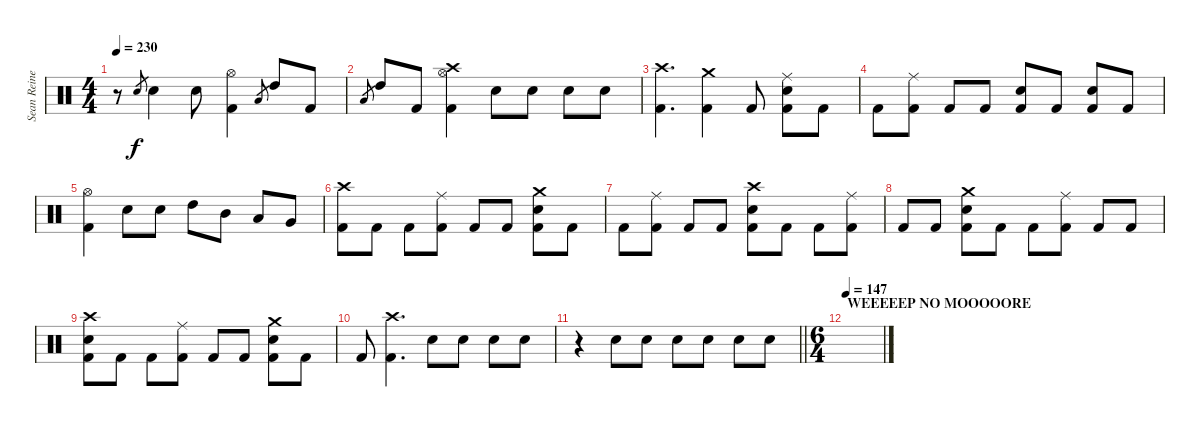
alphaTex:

\track ("Sean Reinert" "Sean Reine") {instrument percussion}
\staff {score}
\articulation defaults
\ts (4 4)
\tempo 230
\clef neutral
\ks c
r.8{dy f} "Snare (hit) 2".8{gr} "Snare (hit) 2".4 "Snare (hit) 2".8 ("Hi-Hat (open)" "Kick (hit) 2").4 "Low Floor Tom (hit)".8{gr} "High Tom (hit)".8 "Kick (hit) 2".8 |
"Low Floor Tom (hit)".8{gr} "High Tom (hit)".8 "Kick (hit) 2".8 ("Hi-Hat (open)" "Crash high (hit)" "Kick (hit) 2").4 "Snare (hit) 2".8 "Snare (hit) 2".8 "Snare (hit) 2".8 "Snare (hit) 2".8 |
("Crash high (hit)" "Kick (hit) 2").4{d} ("Crash medium (hit)" "Kick (hit) 2").4 "Kick (hit) 2".8 ("Ride (middle)" "Snare (hit) 2" "Kick (hit) 2").8 "Kick (hit) 2".8 |
"Kick (hit) 2".8 ("Ride (middle)" "Kick (hit) 2").8 "Kick (hit) 2".8 "Kick (hit) 2".8 ("Snare (hit) 2" "Kick (hit) 2").8 "Kick (hit) 2".8 ("Snare (hit) 2" "Kick (hit) 2").8 "Kick (hit) 2".8 |
("Hi-Hat (open)" "Kick (hit) 2").4 "Snare (hit) 2".8 "Snare (hit) 2".8 "High Tom (hit)".8 "Mid Tom (hit)".8 "Low Tom (hit)".8 "Very Low Tom (hit)".8 |
("Crash high (hit)" "Kick (hit) 2").8 "Kick (hit) 2".8 "Kick (hit) 2".8 ("Ride (middle)" "Kick (hit) 2").8 "Kick (hit) 2".8 "Kick (hit) 2".8 ("Crash medium (hit)" "Snare (hit) 2" "Kick (hit) 2").8 "Kick (hit) 2".8 |
"Kick (hit) 2".8 ("Ride (middle)" "Kick (hit) 2").8 "Kick (hit) 2".8 "Kick (hit) 2".8 ("Crash high (hit)" "Snare (hit) 2" "Kick (hit) 2").8 "Kick (hit) 2".8 "Kick (hit) 2".8 ("Ride (middle)" "Kick (hit) 2").8 |
"Kick (hit) 2".8 "Kick (hit) 2".8 ("Crash medium (hit)" "Snare (hit) 2" "Kick (hit) 2").8 "Kick (hit) 2".8 "Kick (hit) 2".8 ("Ride (middle)" "Kick (hit) 2").8 "Kick (hit) 2".8 "Kick (hit) 2".8 |
("Crash high (hit)" "Snare (hit) 2" "Kick (hit) 2").8 "Kick (hit) 2".8 "Kick (hit) 2".8 ("Ride (middle)" "Kick (hit) 2").8 "Kick (hit) 2".8 "Kick (hit) 2".8 ("Crash medium (hit)" "Snare (hit) 2" "Kick (hit) 2").8 "Kick (hit) 2".8 |
"Kick (hit) 2".8 ("Crash high (hit)" "Kick (hit) 2").4{d} "Snare (hit) 2".8 "Snare (hit) 2".8 "Snare (hit) 2".8 "Snare (hit) 2".8 |
\barLineRight lightlight
r.4 "Snare (hit) 2".8 "Snare (hit) 2".8 "Snare (hit) 2".8 "Snare (hit) 2".8 "Snare (hit) 2".8 "Snare (hit) 2".8 |
\ts (6 4)
\section ("" "WEEEEEP NO MOOOOORE")
\tempo 147
